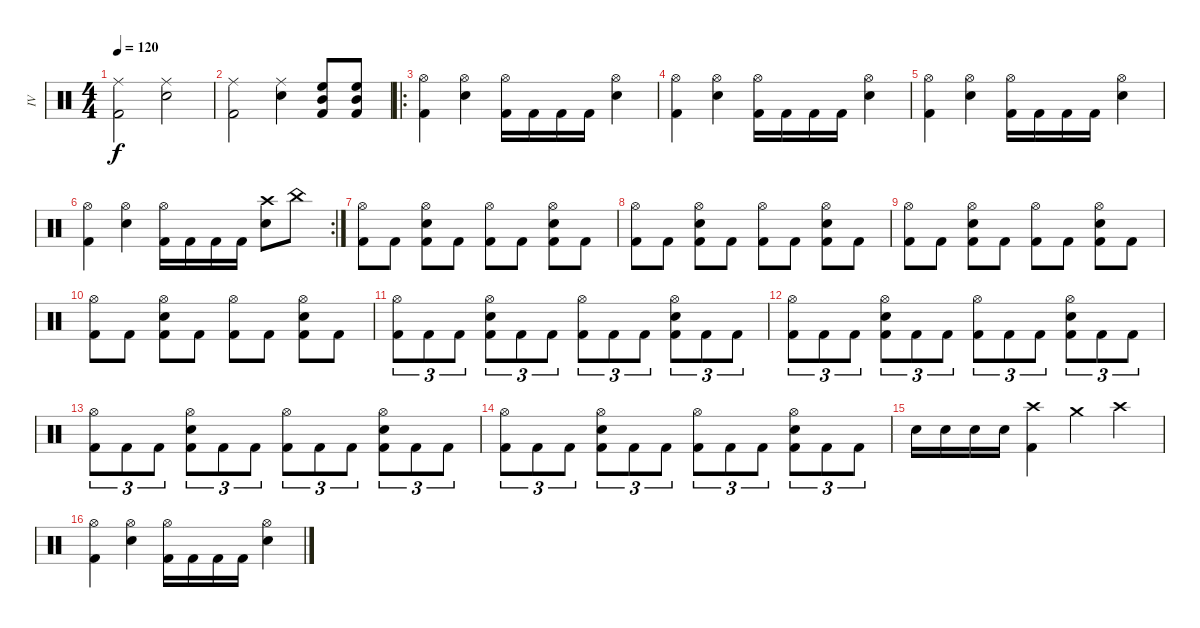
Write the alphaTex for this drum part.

\track ("IV" "IV") {instrument percussion}
\staff {score}
\articulation defaults
\ts (4 4)
\tempo 120
\clef neutral
\ks c
("Ride (middle)" "Kick (hit) 2").2{dy f} ("Ride (middle)" "Snare (hit) 2").2 |
("Ride (middle)" "Kick (hit) 2").2 ("Ride (middle)" "Snare (hit) 2").4 ("High Floor Tom (hit)" "Mid Tom (hit)" "Kick (hit) 2").8 ("High Floor Tom (hit)" "Mid Tom (hit)" "Kick (hit) 2").8 |
\ro
("Hi-Hat (open)" "Kick (hit) 2").4 ("Hi-Hat (open)" "Snare (hit) 2").4 ("Hi-Hat (open)" "Kick (hit) 2").16 "Kick (hit) 2".16 "Kick (hit) 2".16 "Kick (hit) 2".16 ("Hi-Hat (open)" "Snare (hit) 2").4 |
("Hi-Hat (open)" "Kick (hit) 2").4 ("Hi-Hat (open)" "Snare (hit) 2").4 ("Hi-Hat (open)" "Kick (hit) 2").16 "Kick (hit) 2".16 "Kick (hit) 2".16 "Kick (hit) 2".16 ("Hi-Hat (open)" "Snare (hit) 2").4 |
("Hi-Hat (open)" "Kick (hit) 2").4 ("Hi-Hat (open)" "Snare (hit) 2").4 ("Hi-Hat (open)" "Kick (hit) 2").16 "Kick (hit) 2".16 "Kick (hit) 2".16 "Kick (hit) 2".16 ("Hi-Hat (open)" "Snare (hit) 2").4 |
\rc 2
("Hi-Hat (open)" "Kick (hit) 2").4 ("Hi-Hat (open)" "Snare (hit) 2").4 ("Hi-Hat (open)" "Kick (hit) 2").16 "Kick (hit) 2".16 "Kick (hit) 2".16 "Kick (hit) 2".16 ("Crash high (hit)" "Snare (hit) 2").8 "China (hit)".8 |
("Hi-Hat (open)" "Kick (hit) 2").8 "Kick (hit) 2".8 ("Hi-Hat (open)" "Snare (hit) 2" "Kick (hit) 2").8 "Kick (hit) 2".8 ("Hi-Hat (open)" "Kick (hit) 2").8 "Kick (hit) 2".8 ("Hi-Hat (open)" "Snare (hit) 2" "Kick (hit) 2").8 "Kick (hit) 2".8 |
("Hi-Hat (open)" "Kick (hit) 2").8 "Kick (hit) 2".8 ("Hi-Hat (open)" "Snare (hit) 2" "Kick (hit) 2").8 "Kick (hit) 2".8 ("Hi-Hat (open)" "Kick (hit) 2").8 "Kick (hit) 2".8 ("Hi-Hat (open)" "Snare (hit) 2" "Kick (hit) 2").8 "Kick (hit) 2".8 |
("Hi-Hat (open)" "Kick (hit) 2").8 "Kick (hit) 2".8 ("Hi-Hat (open)" "Snare (hit) 2" "Kick (hit) 2").8 "Kick (hit) 2".8 ("Hi-Hat (open)" "Kick (hit) 2").8 "Kick (hit) 2".8 ("Hi-Hat (open)" "Snare (hit) 2" "Kick (hit) 2").8 "Kick (hit) 2".8 |
("Hi-Hat (open)" "Kick (hit) 2").8 "Kick (hit) 2".8 ("Hi-Hat (open)" "Snare (hit) 2" "Kick (hit) 2").8 "Kick (hit) 2".8 ("Hi-Hat (open)" "Kick (hit) 2").8 "Kick (hit) 2".8 ("Hi-Hat (open)" "Snare (hit) 2" "Kick (hit) 2").8 "Kick (hit) 2".8 |
("Hi-Hat (open)" "Kick (hit) 2").8{tu (3 2)} "Kick (hit) 2".8{tu (3 2)} "Kick (hit) 2".8{tu (3 2)} ("Hi-Hat (open)" "Snare (hit) 2" "Kick (hit) 2").8{tu (3 2)} "Kick (hit) 2".8{tu (3 2)} "Kick (hit) 2".8{tu (3 2)} ("Hi-Hat (open)" "Kick (hit) 2").8{tu (3 2)} "Kick (hit) 2".8{tu (3 2)} "Kick (hit) 2".8{tu (3 2)} ("Hi-Hat (open)" "Snare (hit) 2" "Kick (hit) 2").8{tu (3 2)} "Kick (hit) 2".8{tu (3 2)} "Kick (hit) 2".8{tu (3 2)} |
("Hi-Hat (open)" "Kick (hit) 2").8{tu (3 2)} "Kick (hit) 2".8{tu (3 2)} "Kick (hit) 2".8{tu (3 2)} ("Hi-Hat (open)" "Snare (hit) 2" "Kick (hit) 2").8{tu (3 2)} "Kick (hit) 2".8{tu (3 2)} "Kick (hit) 2".8{tu (3 2)} ("Hi-Hat (open)" "Kick (hit) 2").8{tu (3 2)} "Kick (hit) 2".8{tu (3 2)} "Kick (hit) 2".8{tu (3 2)} ("Hi-Hat (open)" "Snare (hit) 2" "Kick (hit) 2").8{tu (3 2)} "Kick (hit) 2".8{tu (3 2)} "Kick (hit) 2".8{tu (3 2)} |
("Hi-Hat (open)" "Kick (hit) 2").8{tu (3 2)} "Kick (hit) 2".8{tu (3 2)} "Kick (hit) 2".8{tu (3 2)} ("Hi-Hat (open)" "Snare (hit) 2" "Kick (hit) 2").8{tu (3 2)} "Kick (hit) 2".8{tu (3 2)} "Kick (hit) 2".8{tu (3 2)} ("Hi-Hat (open)" "Kick (hit) 2").8{tu (3 2)} "Kick (hit) 2".8{tu (3 2)} "Kick (hit) 2".8{tu (3 2)} ("Hi-Hat (open)" "Snare (hit) 2" "Kick (hit) 2").8{tu (3 2)} "Kick (hit) 2".8{tu (3 2)} "Kick (hit) 2".8{tu (3 2)} |
("Hi-Hat (open)" "Kick (hit) 2").8{tu (3 2)} "Kick (hit) 2".8{tu (3 2)} "Kick (hit) 2".8{tu (3 2)} ("Hi-Hat (open)" "Snare (hit) 2" "Kick (hit) 2").8{tu (3 2)} "Kick (hit) 2".8{tu (3 2)} "Kick (hit) 2".8{tu (3 2)} ("Hi-Hat (open)" "Kick (hit) 2").8{tu (3 2)} "Kick (hit) 2".8{tu (3 2)} "Kick (hit) 2".8{tu (3 2)} ("Hi-Hat (open)" "Snare (hit) 2" "Kick (hit) 2").8{tu (3 2)} "Kick (hit) 2".8{tu (3 2)} "Kick (hit) 2".8{tu (3 2)} |
"Snare (hit) 2".16 "Snare (hit) 2".16 "Snare (hit) 2".16 "Snare (hit) 2".16 ("Crash high (hit)" "Kick (hit) 2").4 "Crash medium (hit)".4 "Crash high (hit)".4 |
("Hi-Hat (open)" "Kick (hit) 2").4 ("Hi-Hat (open)" "Snare (hit) 2").4 ("Hi-Hat (open)" "Kick (hit) 2").16 "Kick (hit) 2".16 "Kick (hit) 2".16 "Kick (hit) 2".16 ("Hi-Hat (open)" "Snare (hit) 2").4
